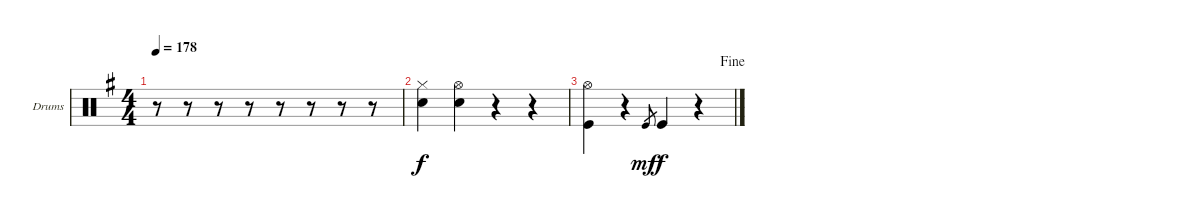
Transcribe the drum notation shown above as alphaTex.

\bracketExtendMode groupsimilarinstruments
\firstSystemTrackNameOrientation horizontal
\otherSystemsTrackNameOrientation horizontal
\track ("Drumkit" "Drums") {instrument percussion}
\staff {score}
\articulation defaults
\ts (4 4)
\tempo 178
\clef neutral
\ks eminor
r.8{dy f} r.8 r.8 r.8 r.8 r.8 r.8 r.8 |
("Hi-Hat (closed)" "Snare (hit) 2").4 ("Hi-Hat (open)" "Snare (hit) 2").4 r.4 r.4 |
\jump fine
("Hi-Hat (open)" "Kick (hit)").4 r.4 "Kick (hit)".8{gr dy mf} "Kick (hit)".4{dy f} r.4
